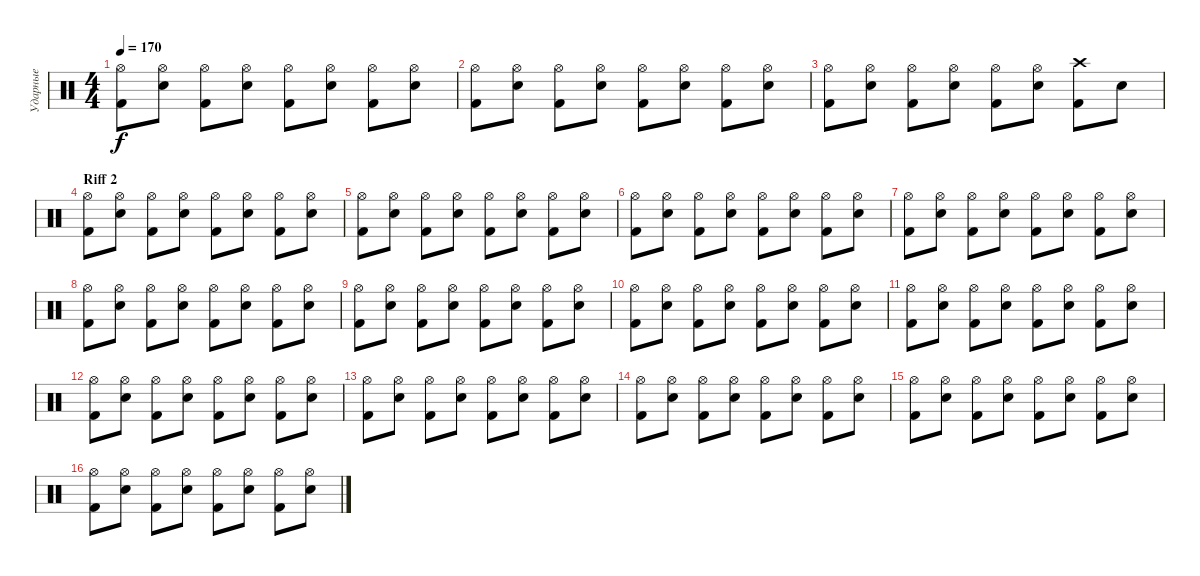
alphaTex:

\track ("Ударные" "Ударные") {instrument percussion}
\staff {score}
\articulation defaults
\ts (4 4)
\tempo 170
\clef neutral
\ks c
("Hi-Hat (open)" "Kick (hit) 2").8{dy f} ("Hi-Hat (open)" "Snare (hit) 2").8 ("Hi-Hat (open)" "Kick (hit) 2").8 ("Hi-Hat (open)" "Snare (hit) 2").8 ("Hi-Hat (open)" "Kick (hit) 2").8 ("Hi-Hat (open)" "Snare (hit) 2").8 ("Hi-Hat (open)" "Kick (hit) 2").8 ("Hi-Hat (open)" "Snare (hit) 2").8 |
("Hi-Hat (open)" "Kick (hit) 2").8 ("Hi-Hat (open)" "Snare (hit) 2").8 ("Hi-Hat (open)" "Kick (hit) 2").8 ("Hi-Hat (open)" "Snare (hit) 2").8 ("Hi-Hat (open)" "Kick (hit) 2").8 ("Hi-Hat (open)" "Snare (hit) 2").8 ("Hi-Hat (open)" "Kick (hit) 2").8 ("Hi-Hat (open)" "Snare (hit) 2").8 |
("Hi-Hat (open)" "Kick (hit) 2").8 ("Hi-Hat (open)" "Snare (hit) 2").8 ("Hi-Hat (open)" "Kick (hit) 2").8 ("Hi-Hat (open)" "Snare (hit) 2").8 ("Hi-Hat (open)" "Kick (hit) 2").8 ("Hi-Hat (open)" "Snare (hit) 2").8 ("Crash high (hit)" "Kick (hit) 2").8 "Snare (hit) 2".8 |
\section ("" "Riff 2")
("Hi-Hat (open)" "Kick (hit) 2").8 ("Hi-Hat (open)" "Snare (hit) 2").8 ("Hi-Hat (open)" "Kick (hit) 2").8 ("Hi-Hat (open)" "Snare (hit) 2").8 ("Hi-Hat (open)" "Kick (hit) 2").8 ("Hi-Hat (open)" "Snare (hit) 2").8 ("Hi-Hat (open)" "Kick (hit) 2").8 ("Hi-Hat (open)" "Snare (hit) 2").8 |
("Hi-Hat (open)" "Kick (hit) 2").8 ("Hi-Hat (open)" "Snare (hit) 2").8 ("Hi-Hat (open)" "Kick (hit) 2").8 ("Hi-Hat (open)" "Snare (hit) 2").8 ("Hi-Hat (open)" "Kick (hit) 2").8 ("Hi-Hat (open)" "Snare (hit) 2").8 ("Hi-Hat (open)" "Kick (hit) 2").8 ("Hi-Hat (open)" "Snare (hit) 2").8 |
("Hi-Hat (open)" "Kick (hit) 2").8 ("Hi-Hat (open)" "Snare (hit) 2").8 ("Hi-Hat (open)" "Kick (hit) 2").8 ("Hi-Hat (open)" "Snare (hit) 2").8 ("Hi-Hat (open)" "Kick (hit) 2").8 ("Hi-Hat (open)" "Snare (hit) 2").8 ("Hi-Hat (open)" "Kick (hit) 2").8 ("Hi-Hat (open)" "Snare (hit) 2").8 |
("Hi-Hat (open)" "Kick (hit) 2").8 ("Hi-Hat (open)" "Snare (hit) 2").8 ("Hi-Hat (open)" "Kick (hit) 2").8 ("Hi-Hat (open)" "Snare (hit) 2").8 ("Hi-Hat (open)" "Kick (hit) 2").8 ("Hi-Hat (open)" "Snare (hit) 2").8 ("Hi-Hat (open)" "Kick (hit) 2").8 ("Hi-Hat (open)" "Snare (hit) 2").8 |
("Hi-Hat (open)" "Kick (hit) 2").8 ("Hi-Hat (open)" "Snare (hit) 2").8 ("Hi-Hat (open)" "Kick (hit) 2").8 ("Hi-Hat (open)" "Snare (hit) 2").8 ("Hi-Hat (open)" "Kick (hit) 2").8 ("Hi-Hat (open)" "Snare (hit) 2").8 ("Hi-Hat (open)" "Kick (hit) 2").8 ("Hi-Hat (open)" "Snare (hit) 2").8 |
("Hi-Hat (open)" "Kick (hit) 2").8 ("Hi-Hat (open)" "Snare (hit) 2").8 ("Hi-Hat (open)" "Kick (hit) 2").8 ("Hi-Hat (open)" "Snare (hit) 2").8 ("Hi-Hat (open)" "Kick (hit) 2").8 ("Hi-Hat (open)" "Snare (hit) 2").8 ("Hi-Hat (open)" "Kick (hit) 2").8 ("Hi-Hat (open)" "Snare (hit) 2").8 |
("Hi-Hat (open)" "Kick (hit) 2").8 ("Hi-Hat (open)" "Snare (hit) 2").8 ("Hi-Hat (open)" "Kick (hit) 2").8 ("Hi-Hat (open)" "Snare (hit) 2").8 ("Hi-Hat (open)" "Kick (hit) 2").8 ("Hi-Hat (open)" "Snare (hit) 2").8 ("Hi-Hat (open)" "Kick (hit) 2").8 ("Hi-Hat (open)" "Snare (hit) 2").8 |
("Hi-Hat (open)" "Kick (hit) 2").8 ("Hi-Hat (open)" "Snare (hit) 2").8 ("Hi-Hat (open)" "Kick (hit) 2").8 ("Hi-Hat (open)" "Snare (hit) 2").8 ("Hi-Hat (open)" "Kick (hit) 2").8 ("Hi-Hat (open)" "Snare (hit) 2").8 ("Hi-Hat (open)" "Kick (hit) 2").8 ("Hi-Hat (open)" "Snare (hit) 2").8 |
("Hi-Hat (open)" "Kick (hit) 2").8 ("Hi-Hat (open)" "Snare (hit) 2").8 ("Hi-Hat (open)" "Kick (hit) 2").8 ("Hi-Hat (open)" "Snare (hit) 2").8 ("Hi-Hat (open)" "Kick (hit) 2").8 ("Hi-Hat (open)" "Snare (hit) 2").8 ("Hi-Hat (open)" "Kick (hit) 2").8 ("Hi-Hat (open)" "Snare (hit) 2").8 |
("Hi-Hat (open)" "Kick (hit) 2").8 ("Hi-Hat (open)" "Snare (hit) 2").8 ("Hi-Hat (open)" "Kick (hit) 2").8 ("Hi-Hat (open)" "Snare (hit) 2").8 ("Hi-Hat (open)" "Kick (hit) 2").8 ("Hi-Hat (open)" "Snare (hit) 2").8 ("Hi-Hat (open)" "Kick (hit) 2").8 ("Hi-Hat (open)" "Snare (hit) 2").8 |
("Hi-Hat (open)" "Kick (hit) 2").8 ("Hi-Hat (open)" "Snare (hit) 2").8 ("Hi-Hat (open)" "Kick (hit) 2").8 ("Hi-Hat (open)" "Snare (hit) 2").8 ("Hi-Hat (open)" "Kick (hit) 2").8 ("Hi-Hat (open)" "Snare (hit) 2").8 ("Hi-Hat (open)" "Kick (hit) 2").8 ("Hi-Hat (open)" "Snare (hit) 2").8 |
("Hi-Hat (open)" "Kick (hit) 2").8 ("Hi-Hat (open)" "Snare (hit) 2").8 ("Hi-Hat (open)" "Kick (hit) 2").8 ("Hi-Hat (open)" "Snare (hit) 2").8 ("Hi-Hat (open)" "Kick (hit) 2").8 ("Hi-Hat (open)" "Snare (hit) 2").8 ("Hi-Hat (open)" "Kick (hit) 2").8 ("Hi-Hat (open)" "Snare (hit) 2").8 |
("Hi-Hat (open)" "Kick (hit) 2").8 ("Hi-Hat (open)" "Snare (hit) 2").8 ("Hi-Hat (open)" "Kick (hit) 2").8 ("Hi-Hat (open)" "Snare (hit) 2").8 ("Hi-Hat (open)" "Kick (hit) 2").8 ("Hi-Hat (open)" "Snare (hit) 2").8 ("Hi-Hat (open)" "Kick (hit) 2").8 ("Hi-Hat (open)" "Snare (hit) 2").8
